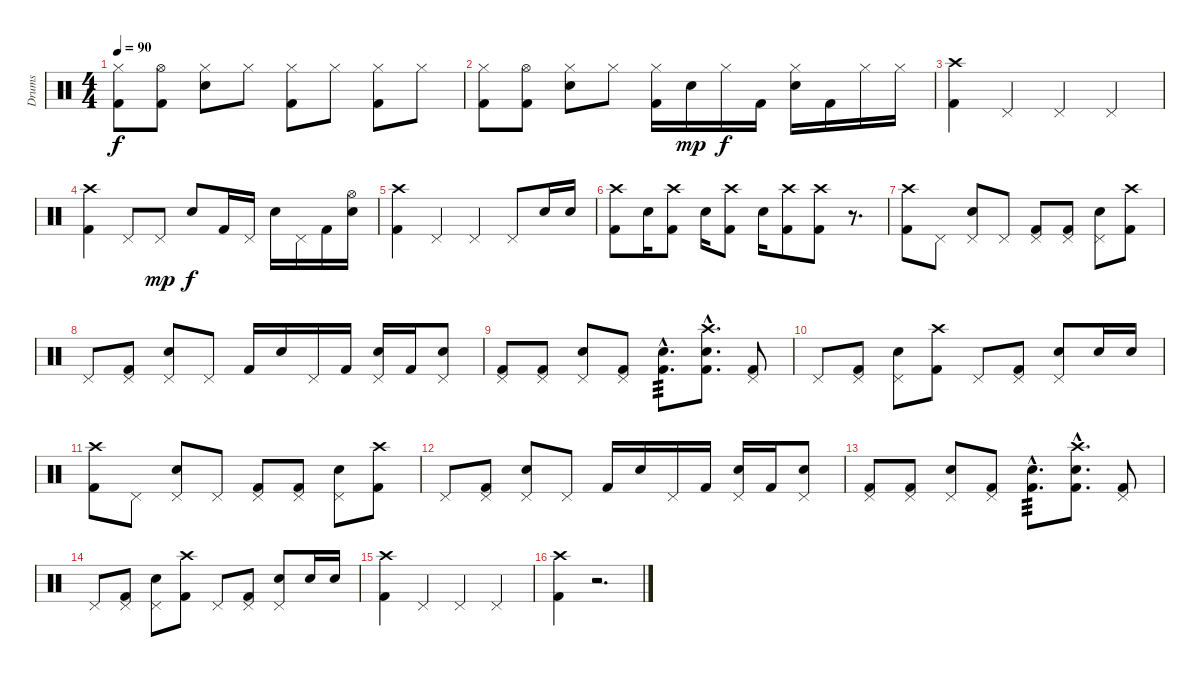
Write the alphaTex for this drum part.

\track ("Drums" "Drums") {instrument percussion}
\staff {score}
\articulation defaults
\ts (4 4)
\tempo 90
\clef neutral
\ks c
("Hi-Hat (closed)" "Kick (hit) 2").8{dy f} ("Hi-Hat (open)" "Kick (hit) 2").8 ("Hi-Hat (closed)" "Snare (hit) 2").8 "Hi-Hat (closed)".8 ("Hi-Hat (closed)" "Kick (hit) 2").8 "Hi-Hat (closed)".8 ("Hi-Hat (closed)" "Kick (hit) 2").8 "Hi-Hat (closed)".8 |
("Hi-Hat (closed)" "Kick (hit) 2").8 ("Hi-Hat (open)" "Kick (hit) 2").8 ("Hi-Hat (closed)" "Snare (hit) 2").8 "Hi-Hat (closed)".8 ("Hi-Hat (closed)" "Kick (hit) 2").16 "Snare (hit) 2".16{dy mp} "Hi-Hat (closed)".16{dy f} "Kick (hit) 2".16 ("Hi-Hat (closed)" "Snare (hit) 2").16 "Kick (hit) 2".16 "Hi-Hat (closed)".16 "Hi-Hat (closed)".16 |
("Crash high (hit)" "Kick (hit) 2").4 "Pedal Hi-Hat (hit)".4 "Pedal Hi-Hat (hit)".4 "Pedal Hi-Hat (hit)".4 |
("Crash high (hit)" "Kick (hit) 2").4 "Pedal Hi-Hat (hit)".8 "Pedal Hi-Hat (hit)".8{dy mp} "Snare (hit) 2".8{dy f} "Kick (hit) 2".16 "Pedal Hi-Hat (hit)".16 "Snare (hit) 2".16 "Pedal Hi-Hat (hit)".16 "Kick (hit) 2".16 ("Hi-Hat (open)" "Snare (hit) 2").16 |
("Crash high (hit)" "Kick (hit) 2").4 "Pedal Hi-Hat (hit)".4 "Pedal Hi-Hat (hit)".4 "Pedal Hi-Hat (hit)".8 "Snare (hit) 2".16 "Snare (hit) 2".16 |
("Crash high (hit)" "Kick (hit) 2").8 "Snare (hit) 2".16 ("Crash high (hit)" "Kick (hit) 2").8 "Snare (hit) 2".16 ("Crash high (hit)" "Kick (hit) 2").8 "Snare (hit) 2".16 ("Crash high (hit)" "Kick (hit) 2").8 ("Crash high (hit)" "Kick (hit) 2").8 r.8{d} |
("Crash high (hit)" "Kick (hit) 2").8 "Pedal Hi-Hat (hit)".8 ("Pedal Hi-Hat (hit)" "Snare (hit) 2").8 "Pedal Hi-Hat (hit)".8 ("Pedal Hi-Hat (hit)" "Kick (hit) 2").8 ("Pedal Hi-Hat (hit)" "Kick (hit) 2").8 ("Pedal Hi-Hat (hit)" "Snare (hit) 2").8 ("Crash high (hit)" "Kick (hit) 2").8 |
"Pedal Hi-Hat (hit)".8 ("Pedal Hi-Hat (hit)" "Kick (hit) 2").8 ("Pedal Hi-Hat (hit)" "Snare (hit) 2").8 "Pedal Hi-Hat (hit)".8 "Kick (hit) 2".16 "Snare (hit) 2".16 "Pedal Hi-Hat (hit)".16 "Kick (hit) 2".16 ("Pedal Hi-Hat (hit)" "Snare (hit) 2").16 "Kick (hit) 2".16 ("Pedal Hi-Hat (hit)" "Snare (hit) 2").8 |
("Pedal Hi-Hat (hit)" "Kick (hit) 2").8 ("Pedal Hi-Hat (hit)" "Kick (hit) 2").8 ("Pedal Hi-Hat (hit)" "Snare (hit) 2").8 ("Pedal Hi-Hat (hit)" "Kick (hit) 2").8 ("Kick (hit) 2"{hac} "Snare (hit) 2"{hac}).8{d tp 3} ("Crash high (hit)"{hac} "Kick (hit) 2"{hac} "Snare (hit) 2"{hac}).8{d} ("Pedal Hi-Hat (hit)" "Kick (hit) 2").8 |
"Pedal Hi-Hat (hit)".8 ("Pedal Hi-Hat (hit)" "Kick (hit) 2").8 ("Pedal Hi-Hat (hit)" "Snare (hit) 2").8 ("Crash high (hit)" "Kick (hit) 2").8 "Pedal Hi-Hat (hit)".8 ("Pedal Hi-Hat (hit)" "Kick (hit) 2").8 ("Pedal Hi-Hat (hit)" "Snare (hit) 2").8 "Snare (hit) 2".16 "Snare (hit) 2".16 |
("Crash high (hit)" "Kick (hit) 2").8 "Pedal Hi-Hat (hit)".8 ("Pedal Hi-Hat (hit)" "Snare (hit) 2").8 "Pedal Hi-Hat (hit)".8 ("Pedal Hi-Hat (hit)" "Kick (hit) 2").8 ("Pedal Hi-Hat (hit)" "Kick (hit) 2").8 ("Pedal Hi-Hat (hit)" "Snare (hit) 2").8 ("Crash high (hit)" "Kick (hit) 2").8 |
"Pedal Hi-Hat (hit)".8 ("Pedal Hi-Hat (hit)" "Kick (hit) 2").8 ("Pedal Hi-Hat (hit)" "Snare (hit) 2").8 "Pedal Hi-Hat (hit)".8 "Kick (hit) 2".16 "Snare (hit) 2".16 "Pedal Hi-Hat (hit)".16 "Kick (hit) 2".16 ("Pedal Hi-Hat (hit)" "Snare (hit) 2").16 "Kick (hit) 2".16 ("Pedal Hi-Hat (hit)" "Snare (hit) 2").8 |
("Pedal Hi-Hat (hit)" "Kick (hit) 2").8 ("Pedal Hi-Hat (hit)" "Kick (hit) 2").8 ("Pedal Hi-Hat (hit)" "Snare (hit) 2").8 ("Pedal Hi-Hat (hit)" "Kick (hit) 2").8 ("Kick (hit) 2"{hac} "Snare (hit) 2"{hac}).8{d tp 3} ("Crash high (hit)"{hac} "Kick (hit) 2"{hac} "Snare (hit) 2"{hac}).8{d} ("Pedal Hi-Hat (hit)" "Kick (hit) 2").8 |
"Pedal Hi-Hat (hit)".8 ("Pedal Hi-Hat (hit)" "Kick (hit) 2").8 ("Pedal Hi-Hat (hit)" "Snare (hit) 2").8 ("Crash high (hit)" "Kick (hit) 2").8 "Pedal Hi-Hat (hit)".8 ("Pedal Hi-Hat (hit)" "Kick (hit) 2").8 ("Pedal Hi-Hat (hit)" "Snare (hit) 2").8 "Snare (hit) 2".16 "Snare (hit) 2".16 |
("Crash high (hit)" "Kick (hit) 2").4 "Pedal Hi-Hat (hit)".4 "Pedal Hi-Hat (hit)".4 "Pedal Hi-Hat (hit)".4 |
("Crash high (hit)" "Kick (hit) 2").4 r.2{d}
